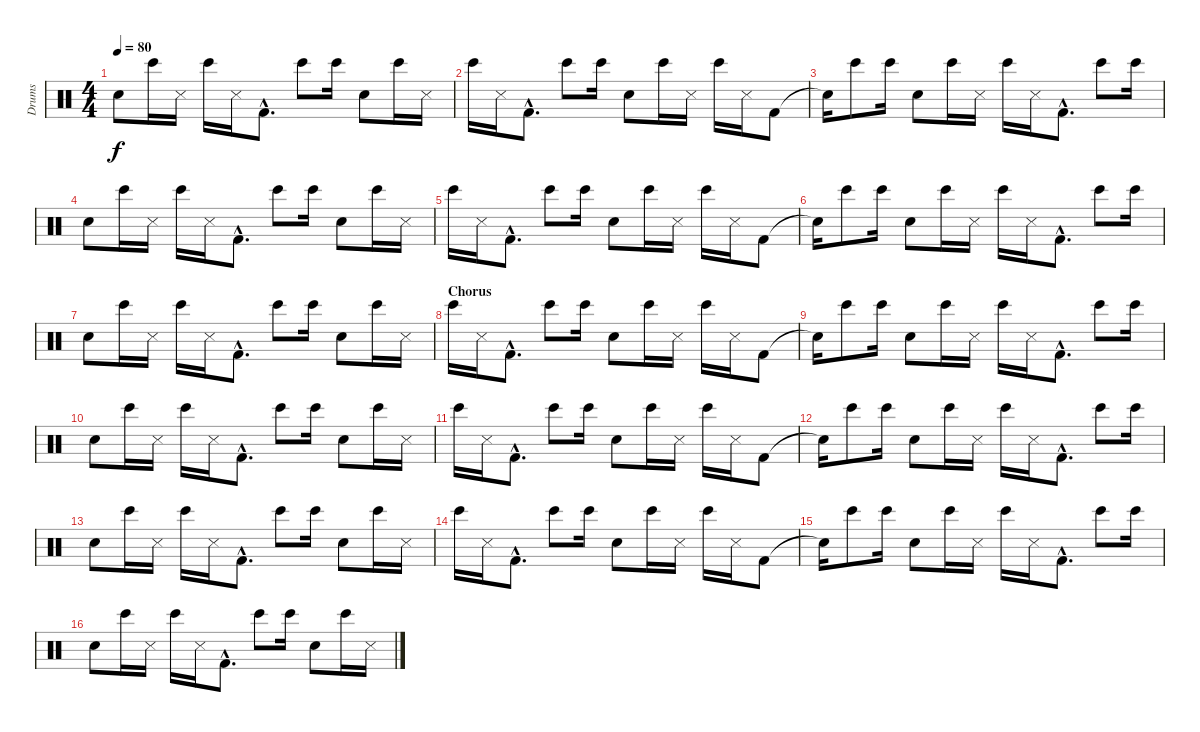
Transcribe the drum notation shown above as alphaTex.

\track ("Drums" "Drums") {instrument percussion}
\staff {score}
\articulation defaults
\ts (4 4)
\tempo 80
\clef neutral
\ks c "Electric Snare (hit)".8{dy f} "Bongo High (hit)".16 "Snare (side stick) 3".16 "Bongo High (hit)".16 "Snare (side stick) 3".16 "Kick (hit) 2"{hac}.8{d} "Bongo High (hit)".8 "Bongo High (hit)".16 "Electric Snare (hit)".8 "Bongo High (hit)".16 "Snare (side stick) 3".16
|
"Bongo High (hit)".16 "Snare (side stick) 3".16 "Kick (hit) 2"{hac}.8{d} "Bongo High (hit)".8 "Bongo High (hit)".16 "Electric Snare (hit)".8 "Bongo High (hit)".16 "Snare (side stick) 3".16 "Bongo High (hit)".16 "Snare (side stick) 3".16 "Kick (hit) 2".8 |
"Snare (hit)"{t}.16 "Bongo High (hit)".8 "Bongo High (hit)".16 "Electric Snare (hit)".8 "Bongo High (hit)".16 "Snare (side stick) 3".16 "Bongo High (hit)".16 "Snare (side stick) 3".16 "Kick (hit) 2"{hac}.8{d} "Bongo High (hit)".8 "Bongo High (hit)".16 |
"Electric Snare (hit)".8 "Bongo High (hit)".16 "Snare (side stick) 3".16 "Bongo High (hit)".16 "Snare (side stick) 3".16 "Kick (hit) 2"{hac}.8{d} "Bongo High (hit)".8 "Bongo High (hit)".16 "Electric Snare (hit)".8 "Bongo High (hit)".16 "Snare (side stick) 3".16 |
"Bongo High (hit)".16 "Snare (side stick) 3".16 "Kick (hit) 2"{hac}.8{d} "Bongo High (hit)".8 "Bongo High (hit)".16 "Electric Snare (hit)".8 "Bongo High (hit)".16 "Snare (side stick) 3".16 "Bongo High (hit)".16 "Snare (side stick) 3".16 "Kick (hit) 2".8 |
"Snare (hit)"{t}.16 "Bongo High (hit)".8 "Bongo High (hit)".16 "Electric Snare (hit)".8 "Bongo High (hit)".16 "Snare (side stick) 3".16 "Bongo High (hit)".16 "Snare (side stick) 3".16 "Kick (hit) 2"{hac}.8{d} "Bongo High (hit)".8 "Bongo High (hit)".16 |
"Electric Snare (hit)".8 "Bongo High (hit)".16 "Snare (side stick) 3".16 "Bongo High (hit)".16 "Snare (side stick) 3".16 "Kick (hit) 2"{hac}.8{d} "Bongo High (hit)".8 "Bongo High (hit)".16 "Electric Snare (hit)".8 "Bongo High (hit)".16 "Snare (side stick) 3".16 |
\section ("" "Chorus")
"Bongo High (hit)".16 "Snare (side stick) 3".16 "Kick (hit) 2"{hac}.8{d} "Bongo High (hit)".8 "Bongo High (hit)".16 "Electric Snare (hit)".8 "Bongo High (hit)".16 "Snare (side stick) 3".16 "Bongo High (hit)".16 "Snare (side stick) 3".16 "Kick (hit) 2".8 |
"Snare (hit)"{t}.16 "Bongo High (hit)".8 "Bongo High (hit)".16 "Electric Snare (hit)".8 "Bongo High (hit)".16 "Snare (side stick) 3".16 "Bongo High (hit)".16 "Snare (side stick) 3".16 "Kick (hit) 2"{hac}.8{d} "Bongo High (hit)".8 "Bongo High (hit)".16 |
"Electric Snare (hit)".8 "Bongo High (hit)".16 "Snare (side stick) 3".16 "Bongo High (hit)".16 "Snare (side stick) 3".16 "Kick (hit) 2"{hac}.8{d} "Bongo High (hit)".8 "Bongo High (hit)".16 "Electric Snare (hit)".8 "Bongo High (hit)".16 "Snare (side stick) 3".16 |
"Bongo High (hit)".16 "Snare (side stick) 3".16 "Kick (hit) 2"{hac}.8{d} "Bongo High (hit)".8 "Bongo High (hit)".16 "Electric Snare (hit)".8 "Bongo High (hit)".16 "Snare (side stick) 3".16 "Bongo High (hit)".16 "Snare (side stick) 3".16 "Kick (hit) 2".8 |
"Snare (hit)"{t}.16 "Bongo High (hit)".8 "Bongo High (hit)".16 "Electric Snare (hit)".8 "Bongo High (hit)".16 "Snare (side stick) 3".16 "Bongo High (hit)".16 "Snare (side stick) 3".16 "Kick (hit) 2"{hac}.8{d} "Bongo High (hit)".8 "Bongo High (hit)".16 |
"Electric Snare (hit)".8 "Bongo High (hit)".16 "Snare (side stick) 3".16 "Bongo High (hit)".16 "Snare (side stick) 3".16 "Kick (hit) 2"{hac}.8{d} "Bongo High (hit)".8 "Bongo High (hit)".16 "Electric Snare (hit)".8 "Bongo High (hit)".16 "Snare (side stick) 3".16 |
"Bongo High (hit)".16 "Snare (side stick) 3".16 "Kick (hit) 2"{hac}.8{d} "Bongo High (hit)".8 "Bongo High (hit)".16 "Electric Snare (hit)".8 "Bongo High (hit)".16 "Snare (side stick) 3".16 "Bongo High (hit)".16 "Snare (side stick) 3".16 "Kick (hit) 2".8 |
"Snare (hit)"{t}.16 "Bongo High (hit)".8 "Bongo High (hit)".16 "Electric Snare (hit)".8 "Bongo High (hit)".16 "Snare (side stick) 3".16 "Bongo High (hit)".16 "Snare (side stick) 3".16 "Kick (hit) 2"{hac}.8{d} "Bongo High (hit)".8 "Bongo High (hit)".16 |
"Electric Snare (hit)".8 "Bongo High (hit)".16 "Snare (side stick) 3".16 "Bongo High (hit)".16 "Snare (side stick) 3".16 "Kick (hit) 2"{hac}.8{d} "Bongo High (hit)".8 "Bongo High (hit)".16 "Electric Snare (hit)".8 "Bongo High (hit)".16 "Snare (side stick) 3".16
